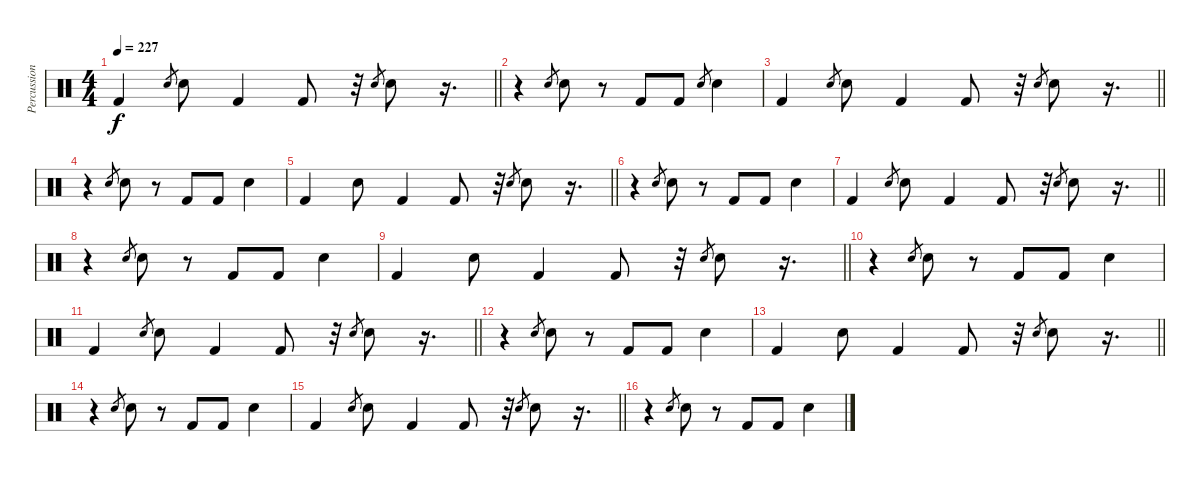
\track ("Percussion" "Percussion") {instrument percussion}
\staff {score}
\articulation defaults
\ts (4 4)
\tempo 227
\clef neutral
\barLineRight lightlight
\ks c "Kick (hit) 2".4{dy f} "Snare (hit) 2".8{gr} "Snare (hit) 2".8 "Kick (hit) 2".4 "Kick (hit) 2".8
r.32 "Snare (hit) 2".8{gr} "Snare (hit) 2".8 r.16{d} |
r.4 "Snare (hit) 2".8{gr} "Snare (hit) 2".8 r.8 "Kick (hit) 2".8 "Kick (hit) 2".8 "Snare (hit) 2".8{gr} "Snare (hit) 2".4 |
\barLineRight lightlight "Kick (hit) 2".4 "Snare (hit) 2".8{gr} "Snare (hit) 2".8 "Kick (hit) 2".4 "Kick (hit) 2".8
r.32 "Snare (hit) 2".8{gr} "Snare (hit) 2".8 r.16{d} |
r.4 "Snare (hit) 2".8{gr} "Snare (hit) 2".8 r.8 "Kick (hit) 2".8 "Kick (hit) 2".8 "Snare (hit) 2".4 |
\barLineRight lightlight "Kick (hit) 2".4 "Snare (hit) 2".8 "Kick (hit) 2".4 "Kick (hit) 2".8
r.32 "Snare (hit) 2".8{gr} "Snare (hit) 2".8 r.16{d} |
r.4 "Snare (hit) 2".8{gr} "Snare (hit) 2".8 r.8 "Kick (hit) 2".8 "Kick (hit) 2".8 "Snare (hit) 2".4 |
\barLineRight lightlight "Kick (hit) 2".4 "Snare (hit) 2".8{gr} "Snare (hit) 2".8 "Kick (hit) 2".4 "Kick (hit) 2".8
r.32 "Snare (hit) 2".8{gr} "Snare (hit) 2".8 r.16{d} |
r.4 "Snare (hit) 2".8{gr} "Snare (hit) 2".8 r.8 "Kick (hit) 2".8 "Kick (hit) 2".8 "Snare (hit) 2".4 |
\barLineRight lightlight "Kick (hit) 2".4 "Snare (hit) 2".8 "Kick (hit) 2".4 "Kick (hit) 2".8
r.32 "Snare (hit) 2".8{gr} "Snare (hit) 2".8 r.16{d} |
r.4 "Snare (hit) 2".8{gr} "Snare (hit) 2".8 r.8 "Kick (hit) 2".8 "Kick (hit) 2".8 "Snare (hit) 2".4 |
\barLineRight lightlight "Kick (hit) 2".4 "Snare (hit) 2".8{gr} "Snare (hit) 2".8 "Kick (hit) 2".4 "Kick (hit) 2".8
r.32 "Snare (hit) 2".8{gr} "Snare (hit) 2".8 r.16{d} |
r.4 "Snare (hit) 2".8{gr} "Snare (hit) 2".8 r.8 "Kick (hit) 2".8 "Kick (hit) 2".8 "Snare (hit) 2".4 |
\barLineRight lightlight "Kick (hit) 2".4 "Snare (hit) 2".8 "Kick (hit) 2".4 "Kick (hit) 2".8
r.32 "Snare (hit) 2".8{gr} "Snare (hit) 2".8 r.16{d} |
r.4 "Snare (hit) 2".8{gr} "Snare (hit) 2".8 r.8 "Kick (hit) 2".8 "Kick (hit) 2".8 "Snare (hit) 2".4 |
\barLineRight lightlight "Kick (hit) 2".4 "Snare (hit) 2".8{gr} "Snare (hit) 2".8 "Kick (hit) 2".4 "Kick (hit) 2".8
r.32 "Snare (hit) 2".8{gr} "Snare (hit) 2".8 r.16{d} |
r.4 "Snare (hit) 2".8{gr} "Snare (hit) 2".8 r.8 "Kick (hit) 2".8 "Kick (hit) 2".8 "Snare (hit) 2".4
